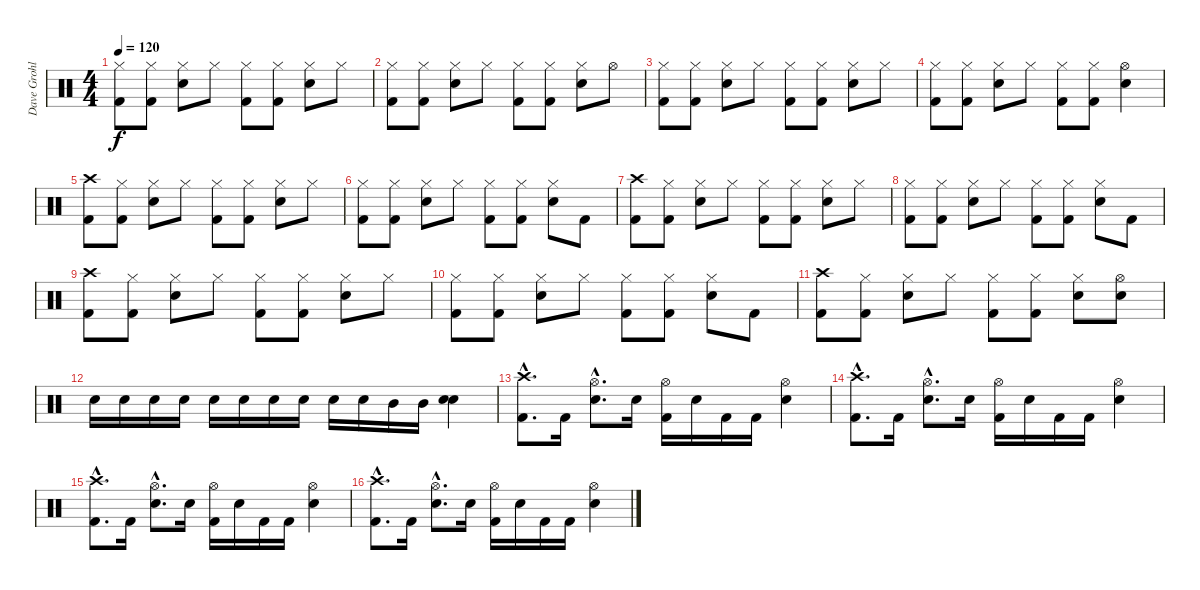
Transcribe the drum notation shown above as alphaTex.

\track ("Dave Grohl" "Dave Grohl") {instrument percussion}
\staff {score}
\articulation defaults
\ts (4 4)
\tempo 120
\clef neutral
\ks c
("Hi-Hat (closed)" "Kick (hit) 2").8{dy f} ("Hi-Hat (closed)" "Kick (hit) 2").8 ("Hi-Hat (closed)" "Snare (hit) 2").8 "Hi-Hat (closed)".8 ("Hi-Hat (closed)" "Kick (hit) 2").8 ("Hi-Hat (closed)" "Kick (hit) 2").8 ("Hi-Hat (closed)" "Snare (hit) 2").8 "Hi-Hat (closed)".8 |
("Hi-Hat (closed)" "Kick (hit) 2").8 ("Hi-Hat (closed)" "Kick (hit) 2").8 ("Hi-Hat (closed)" "Snare (hit) 2").8 "Hi-Hat (closed)".8 ("Hi-Hat (closed)" "Kick (hit) 2").8 ("Hi-Hat (closed)" "Kick (hit) 2").8 ("Hi-Hat (closed)" "Snare (hit) 2").8 "Hi-Hat (open)".8 |
("Hi-Hat (closed)" "Kick (hit) 2").8 ("Hi-Hat (closed)" "Kick (hit) 2").8 ("Hi-Hat (closed)" "Snare (hit) 2").8 "Hi-Hat (closed)".8 ("Hi-Hat (closed)" "Kick (hit) 2").8 ("Hi-Hat (closed)" "Kick (hit) 2").8 ("Hi-Hat (closed)" "Snare (hit) 2").8 "Hi-Hat (closed)".8 |
("Hi-Hat (closed)" "Kick (hit) 2").8 ("Hi-Hat (closed)" "Kick (hit) 2").8 ("Hi-Hat (closed)" "Snare (hit) 2").8 "Hi-Hat (closed)".8 ("Hi-Hat (closed)" "Kick (hit) 2").8 ("Hi-Hat (closed)" "Kick (hit) 2").8 ("Hi-Hat (open)" "Snare (hit) 2").4 |
("Crash high (hit)" "Kick (hit) 2").8 ("Hi-Hat (closed)" "Kick (hit) 2").8 ("Hi-Hat (closed)" "Snare (hit) 2").8 "Hi-Hat (closed)".8 ("Hi-Hat (closed)" "Kick (hit) 2").8 ("Hi-Hat (closed)" "Kick (hit) 2").8 ("Hi-Hat (closed)" "Snare (hit) 2").8 "Hi-Hat (closed)".8 |
("Hi-Hat (closed)" "Kick (hit) 2").8 ("Hi-Hat (closed)" "Kick (hit) 2").8 ("Hi-Hat (closed)" "Snare (hit) 2").8 "Hi-Hat (closed)".8 ("Hi-Hat (closed)" "Kick (hit) 2").8 ("Hi-Hat (closed)" "Kick (hit) 2").8 ("Hi-Hat (closed)" "Snare (hit) 2").8 "Kick (hit) 2".8 |
("Crash high (hit)" "Kick (hit) 2").8 ("Hi-Hat (closed)" "Kick (hit) 2").8 ("Hi-Hat (closed)" "Snare (hit) 2").8 "Hi-Hat (closed)".8 ("Hi-Hat (closed)" "Kick (hit) 2").8 ("Hi-Hat (closed)" "Kick (hit) 2").8 ("Hi-Hat (closed)" "Snare (hit) 2").8 "Hi-Hat (closed)".8 |
("Hi-Hat (closed)" "Kick (hit) 2").8 ("Hi-Hat (closed)" "Kick (hit) 2").8 ("Hi-Hat (closed)" "Snare (hit) 2").8 "Hi-Hat (closed)".8 ("Hi-Hat (closed)" "Kick (hit) 2").8 ("Hi-Hat (closed)" "Kick (hit) 2").8 ("Hi-Hat (closed)" "Snare (hit) 2").8 "Kick (hit) 2".8 |
("Crash high (hit)" "Kick (hit) 2").8 ("Hi-Hat (closed)" "Kick (hit) 2").8 ("Hi-Hat (closed)" "Snare (hit) 2").8 "Hi-Hat (closed)".8 ("Hi-Hat (closed)" "Kick (hit) 2").8 ("Hi-Hat (closed)" "Kick (hit) 2").8 ("Hi-Hat (closed)" "Snare (hit) 2").8 "Hi-Hat (closed)".8 |
("Hi-Hat (closed)" "Kick (hit) 2").8 ("Hi-Hat (closed)" "Kick (hit) 2").8 ("Hi-Hat (closed)" "Snare (hit) 2").8 "Hi-Hat (closed)".8 ("Hi-Hat (closed)" "Kick (hit) 2").8 ("Hi-Hat (closed)" "Kick (hit) 2").8 ("Hi-Hat (closed)" "Snare (hit) 2").8 "Kick (hit) 2".8 |
("Crash high (hit)" "Kick (hit) 2").8 ("Hi-Hat (closed)" "Kick (hit) 2").8 ("Hi-Hat (closed)" "Snare (hit) 2").8 "Hi-Hat (closed)".8 ("Hi-Hat (closed)" "Kick (hit) 2").8 ("Hi-Hat (closed)" "Kick (hit) 2").8 ("Hi-Hat (closed)" "Snare (hit) 2").8 ("Hi-Hat (open)" "Snare (hit) 2").8 |
"Snare (hit) 2".16 "Snare (hit) 2".16 "Snare (hit) 2".16 "Snare (hit) 2".16 "Snare (hit) 2".16 "Snare (hit) 2".16 "Snare (hit) 2".16 "Snare (hit) 2".16 "Snare (hit) 2".16 "Snare (hit) 2".16 "Mid Tom (hit)".16 "Mid Tom (hit)".16 ("Snare (hit) 2" "Snare (hit) 2").4 |
("Crash high (hit)"{hac} "Kick (hit) 2"{hac}).8{d} "Kick (hit) 2".16 ("Hi-Hat (open)"{hac} "Snare (hit) 2"{hac}).8{d} "Snare (hit) 2".16 ("Hi-Hat (open)" "Kick (hit) 2").16 "Snare (hit) 2".16 "Kick (hit) 2".16 "Kick (hit) 2".16 ("Hi-Hat (open)" "Snare (hit) 2").4 |
("Crash high (hit)"{hac} "Kick (hit) 2"{hac}).8{d} "Kick (hit) 2".16 ("Hi-Hat (open)"{hac} "Snare (hit) 2"{hac}).8{d} "Snare (hit) 2".16 ("Hi-Hat (open)" "Kick (hit) 2").16 "Snare (hit) 2".16 "Kick (hit) 2".16 "Kick (hit) 2".16 ("Hi-Hat (open)" "Snare (hit) 2").4 |
("Crash high (hit)"{hac} "Kick (hit) 2"{hac}).8{d} "Kick (hit) 2".16 ("Hi-Hat (open)"{hac} "Snare (hit) 2"{hac}).8{d} "Snare (hit) 2".16 ("Hi-Hat (open)" "Kick (hit) 2").16 "Snare (hit) 2".16 "Kick (hit) 2".16 "Kick (hit) 2".16 ("Hi-Hat (open)" "Snare (hit) 2").4 |
("Crash high (hit)"{hac} "Kick (hit) 2"{hac}).8{d} "Kick (hit) 2".16 ("Hi-Hat (open)"{hac} "Snare (hit) 2"{hac}).8{d} "Snare (hit) 2".16 ("Hi-Hat (open)" "Kick (hit) 2").16 "Snare (hit) 2".16 "Kick (hit) 2".16 "Kick (hit) 2".16 ("Hi-Hat (open)" "Snare (hit) 2").4
